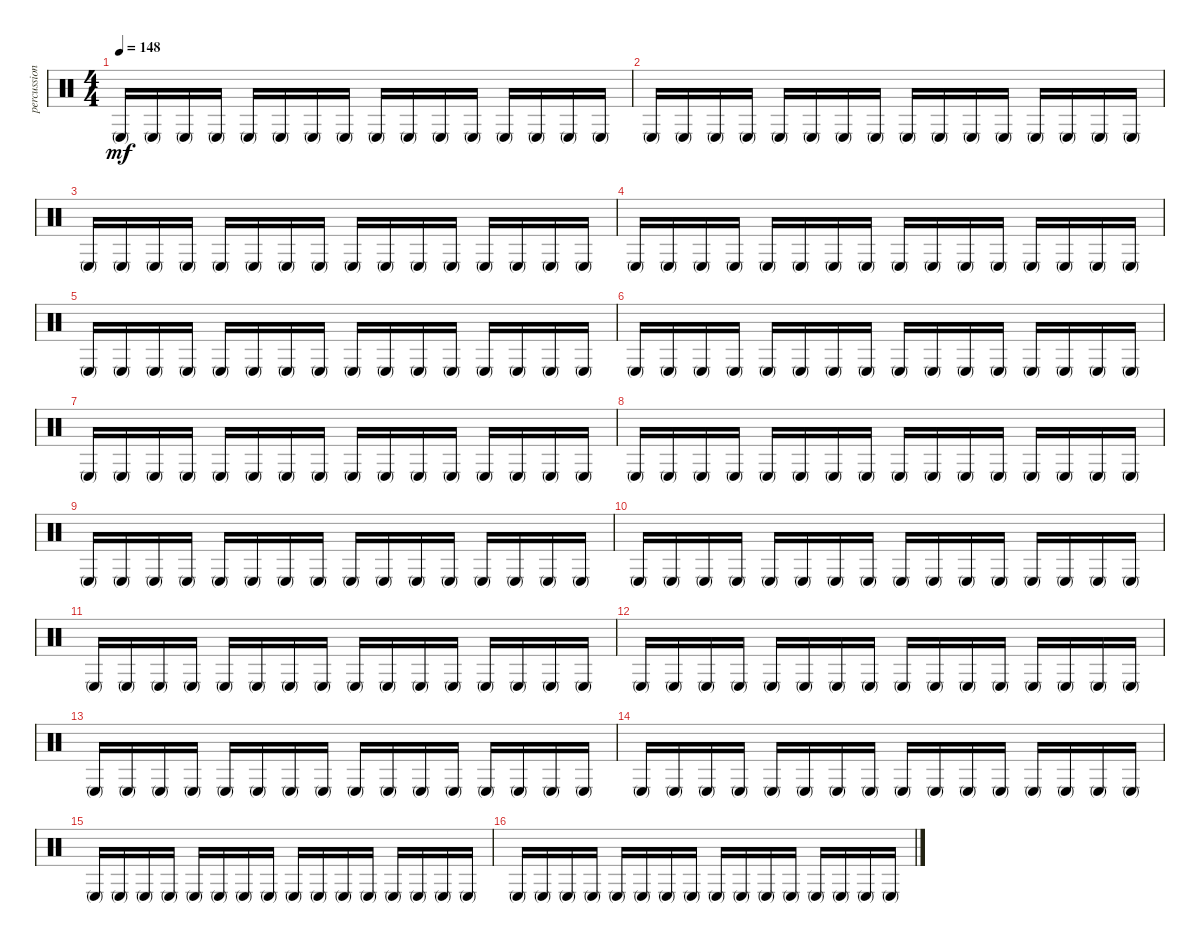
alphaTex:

\track ("percussion fx 2" "percussion") {instrument percussion}
\staff {score}
\articulation defaults
\ts (4 4)
\tempo 148
\clef neutral
\ks c "Conga low (mute)".16{dy mf} "Conga low (mute)".16 "Conga low (mute)".16 "Conga low (mute)".16 "Conga low (mute)".16 "Conga low (mute)".16 "Conga low (mute)".16 "Conga low (mute)".16 "Conga low (mute)".16 "Conga low (mute)".16 "Conga low (mute)".16 "Conga low (mute)".16 "Conga low (mute)".16 "Conga low (mute)".16 "Conga low (mute)".16 "Conga low (mute)".16
|
"Conga low (mute)".16 "Conga low (mute)".16 "Conga low (mute)".16 "Conga low (mute)".16 "Conga low (mute)".16 "Conga low (mute)".16 "Conga low (mute)".16 "Conga low (mute)".16 "Conga low (mute)".16 "Conga low (mute)".16 "Conga low (mute)".16 "Conga low (mute)".16 "Conga low (mute)".16 "Conga low (mute)".16 "Conga low (mute)".16 "Conga low (mute)".16 |
"Conga low (mute)".16 "Conga low (mute)".16 "Conga low (mute)".16 "Conga low (mute)".16 "Conga low (mute)".16 "Conga low (mute)".16 "Conga low (mute)".16 "Conga low (mute)".16 "Conga low (mute)".16 "Conga low (mute)".16 "Conga low (mute)".16 "Conga low (mute)".16 "Conga low (mute)".16 "Conga low (mute)".16 "Conga low (mute)".16 "Conga low (mute)".16 |
"Conga low (mute)".16 "Conga low (mute)".16 "Conga low (mute)".16 "Conga low (mute)".16 "Conga low (mute)".16 "Conga low (mute)".16 "Conga low (mute)".16 "Conga low (mute)".16 "Conga low (mute)".16 "Conga low (mute)".16 "Conga low (mute)".16 "Conga low (mute)".16 "Conga low (mute)".16 "Conga low (mute)".16 "Conga low (mute)".16 "Conga low (mute)".16 |
"Conga low (mute)".16 "Conga low (mute)".16 "Conga low (mute)".16 "Conga low (mute)".16 "Conga low (mute)".16 "Conga low (mute)".16 "Conga low (mute)".16 "Conga low (mute)".16 "Conga low (mute)".16 "Conga low (mute)".16 "Conga low (mute)".16 "Conga low (mute)".16 "Conga low (mute)".16 "Conga low (mute)".16 "Conga low (mute)".16 "Conga low (mute)".16 |
"Conga low (mute)".16 "Conga low (mute)".16 "Conga low (mute)".16 "Conga low (mute)".16 "Conga low (mute)".16 "Conga low (mute)".16 "Conga low (mute)".16 "Conga low (mute)".16 "Conga low (mute)".16 "Conga low (mute)".16 "Conga low (mute)".16 "Conga low (mute)".16 "Conga low (mute)".16 "Conga low (mute)".16 "Conga low (mute)".16 "Conga low (mute)".16 |
"Conga low (mute)".16 "Conga low (mute)".16 "Conga low (mute)".16 "Conga low (mute)".16 "Conga low (mute)".16 "Conga low (mute)".16 "Conga low (mute)".16 "Conga low (mute)".16 "Conga low (mute)".16 "Conga low (mute)".16 "Conga low (mute)".16 "Conga low (mute)".16 "Conga low (mute)".16 "Conga low (mute)".16 "Conga low (mute)".16 "Conga low (mute)".16 |
"Conga low (mute)".16 "Conga low (mute)".16 "Conga low (mute)".16 "Conga low (mute)".16 "Conga low (mute)".16 "Conga low (mute)".16 "Conga low (mute)".16 "Conga low (mute)".16 "Conga low (mute)".16 "Conga low (mute)".16 "Conga low (mute)".16 "Conga low (mute)".16 "Conga low (mute)".16 "Conga low (mute)".16 "Conga low (mute)".16 "Conga low (mute)".16 |
"Conga low (mute)".16 "Conga low (mute)".16 "Conga low (mute)".16 "Conga low (mute)".16 "Conga low (mute)".16 "Conga low (mute)".16 "Conga low (mute)".16 "Conga low (mute)".16 "Conga low (mute)".16 "Conga low (mute)".16 "Conga low (mute)".16 "Conga low (mute)".16 "Conga low (mute)".16 "Conga low (mute)".16 "Conga low (mute)".16 "Conga low (mute)".16 |
"Conga low (mute)".16 "Conga low (mute)".16 "Conga low (mute)".16 "Conga low (mute)".16 "Conga low (mute)".16 "Conga low (mute)".16 "Conga low (mute)".16 "Conga low (mute)".16 "Conga low (mute)".16 "Conga low (mute)".16 "Conga low (mute)".16 "Conga low (mute)".16 "Conga low (mute)".16 "Conga low (mute)".16 "Conga low (mute)".16 "Conga low (mute)".16 |
"Conga low (mute)".16 "Conga low (mute)".16 "Conga low (mute)".16 "Conga low (mute)".16 "Conga low (mute)".16 "Conga low (mute)".16 "Conga low (mute)".16 "Conga low (mute)".16 "Conga low (mute)".16 "Conga low (mute)".16 "Conga low (mute)".16 "Conga low (mute)".16 "Conga low (mute)".16 "Conga low (mute)".16 "Conga low (mute)".16 "Conga low (mute)".16 |
"Conga low (mute)".16 "Conga low (mute)".16 "Conga low (mute)".16 "Conga low (mute)".16 "Conga low (mute)".16 "Conga low (mute)".16 "Conga low (mute)".16 "Conga low (mute)".16 "Conga low (mute)".16 "Conga low (mute)".16 "Conga low (mute)".16 "Conga low (mute)".16 "Conga low (mute)".16 "Conga low (mute)".16 "Conga low (mute)".16 "Conga low (mute)".16 |
"Conga low (mute)".16 "Conga low (mute)".16 "Conga low (mute)".16 "Conga low (mute)".16 "Conga low (mute)".16 "Conga low (mute)".16 "Conga low (mute)".16 "Conga low (mute)".16 "Conga low (mute)".16 "Conga low (mute)".16 "Conga low (mute)".16 "Conga low (mute)".16 "Conga low (mute)".16 "Conga low (mute)".16 "Conga low (mute)".16 "Conga low (mute)".16 |
"Conga low (mute)".16 "Conga low (mute)".16 "Conga low (mute)".16 "Conga low (mute)".16 "Conga low (mute)".16 "Conga low (mute)".16 "Conga low (mute)".16 "Conga low (mute)".16 "Conga low (mute)".16 "Conga low (mute)".16 "Conga low (mute)".16 "Conga low (mute)".16 "Conga low (mute)".16 "Conga low (mute)".16 "Conga low (mute)".16 "Conga low (mute)".16 |
"Conga low (mute)".16 "Conga low (mute)".16 "Conga low (mute)".16 "Conga low (mute)".16 "Conga low (mute)".16 "Conga low (mute)".16 "Conga low (mute)".16 "Conga low (mute)".16 "Conga low (mute)".16 "Conga low (mute)".16 "Conga low (mute)".16 "Conga low (mute)".16 "Conga low (mute)".16 "Conga low (mute)".16 "Conga low (mute)".16 "Conga low (mute)".16 |
"Conga low (mute)".16 "Conga low (mute)".16 "Conga low (mute)".16 "Conga low (mute)".16 "Conga low (mute)".16 "Conga low (mute)".16 "Conga low (mute)".16 "Conga low (mute)".16 "Conga low (mute)".16 "Conga low (mute)".16 "Conga low (mute)".16 "Conga low (mute)".16 "Conga low (mute)".16 "Conga low (mute)".16 "Conga low (mute)".16 "Conga low (mute)".16
